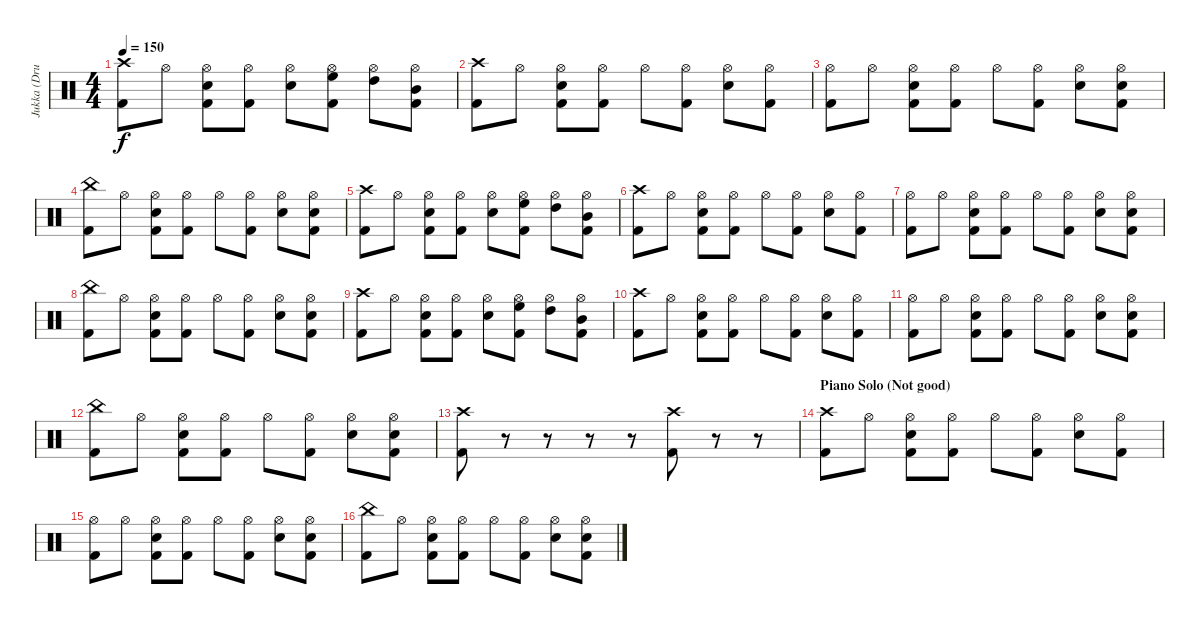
\track ("Jukka (Drums)" "Jukka (Dru") {instrument percussion}
\staff {score}
\articulation defaults
\ts (4 4)
\tempo 150
\clef neutral
\ks c
("Kick (hit) 2" "Crash high (hit)").8{dy f} "Hi-Hat (open)".8 ("Kick (hit) 2" "Hi-Hat (open)" "Electric Snare (hit)").8 ("Kick (hit) 2" "Hi-Hat (open)").8 ("Hi-Hat (open)" "Electric Snare (hit)").8 ("Kick (hit) 2" "Hi-Hat (open)" "High Floor Tom (hit)").8 ("Hi-Hat (open)" "High Tom (hit)").8 ("Kick (hit) 2" "Hi-Hat (open)" "Mid Tom (hit)").8 |
("Kick (hit) 2" "Crash high (hit)").8 "Hi-Hat (open)".8 ("Kick (hit) 2" "Hi-Hat (open)" "Electric Snare (hit)").8 ("Kick (hit) 2" "Hi-Hat (open)").8 "Hi-Hat (open)".8 ("Kick (hit) 2" "Hi-Hat (open)").8 ("Hi-Hat (open)" "Electric Snare (hit)").8 ("Kick (hit) 2" "Hi-Hat (open)").8 |
("Kick (hit) 2" "Hi-Hat (open)").8 "Hi-Hat (open)".8 ("Kick (hit) 2" "Hi-Hat (open)" "Electric Snare (hit)").8 ("Kick (hit) 2" "Hi-Hat (open)").8 "Hi-Hat (open)".8 ("Kick (hit) 2" "Hi-Hat (open)").8 ("Hi-Hat (open)" "Electric Snare (hit)").8 ("Kick (hit) 2" "Hi-Hat (open)" "Electric Snare (hit)").8 |
("Kick (hit) 2" "China (hit)").8 "Hi-Hat (open)".8 ("Kick (hit) 2" "Hi-Hat (open)" "Electric Snare (hit)").8 ("Kick (hit) 2" "Hi-Hat (open)").8 "Hi-Hat (open)".8 ("Kick (hit) 2" "Hi-Hat (open)").8 ("Hi-Hat (open)" "Electric Snare (hit)").8 ("Kick (hit) 2" "Hi-Hat (open)" "Electric Snare (hit)").8 |
("Kick (hit) 2" "Crash high (hit)").8 "Hi-Hat (open)".8 ("Kick (hit) 2" "Hi-Hat (open)" "Electric Snare (hit)").8 ("Kick (hit) 2" "Hi-Hat (open)").8 ("Hi-Hat (open)" "Electric Snare (hit)").8 ("Kick (hit) 2" "Hi-Hat (open)" "High Floor Tom (hit)").8 ("Hi-Hat (open)" "High Tom (hit)").8 ("Kick (hit) 2" "Hi-Hat (open)" "Mid Tom (hit)").8 |
("Kick (hit) 2" "Crash high (hit)").8 "Hi-Hat (open)".8 ("Kick (hit) 2" "Hi-Hat (open)" "Electric Snare (hit)").8 ("Kick (hit) 2" "Hi-Hat (open)").8 "Hi-Hat (open)".8 ("Kick (hit) 2" "Hi-Hat (open)").8 ("Hi-Hat (open)" "Electric Snare (hit)").8 ("Kick (hit) 2" "Hi-Hat (open)").8 |
("Kick (hit) 2" "Hi-Hat (open)").8 "Hi-Hat (open)".8 ("Kick (hit) 2" "Hi-Hat (open)" "Electric Snare (hit)").8 ("Kick (hit) 2" "Hi-Hat (open)").8 "Hi-Hat (open)".8 ("Kick (hit) 2" "Hi-Hat (open)").8 ("Hi-Hat (open)" "Electric Snare (hit)").8 ("Kick (hit) 2" "Hi-Hat (open)" "Electric Snare (hit)").8 |
("Kick (hit) 2" "China (hit)").8 "Hi-Hat (open)".8 ("Kick (hit) 2" "Hi-Hat (open)" "Electric Snare (hit)").8 ("Kick (hit) 2" "Hi-Hat (open)").8 "Hi-Hat (open)".8 ("Kick (hit) 2" "Hi-Hat (open)").8 ("Hi-Hat (open)" "Electric Snare (hit)").8 ("Kick (hit) 2" "Hi-Hat (open)" "Electric Snare (hit)").8 |
("Kick (hit) 2" "Crash high (hit)").8 "Hi-Hat (open)".8 ("Kick (hit) 2" "Hi-Hat (open)" "Electric Snare (hit)").8 ("Kick (hit) 2" "Hi-Hat (open)").8 ("Hi-Hat (open)" "Electric Snare (hit)").8 ("Kick (hit) 2" "Hi-Hat (open)" "High Floor Tom (hit)").8 ("Hi-Hat (open)" "High Tom (hit)").8 ("Kick (hit) 2" "Hi-Hat (open)" "Mid Tom (hit)").8 |
("Kick (hit) 2" "Crash high (hit)").8 "Hi-Hat (open)".8 ("Kick (hit) 2" "Hi-Hat (open)" "Electric Snare (hit)").8 ("Kick (hit) 2" "Hi-Hat (open)").8 "Hi-Hat (open)".8 ("Kick (hit) 2" "Hi-Hat (open)").8 ("Hi-Hat (open)" "Electric Snare (hit)").8 ("Kick (hit) 2" "Hi-Hat (open)").8 |
("Kick (hit) 2" "Hi-Hat (open)").8 "Hi-Hat (open)".8 ("Kick (hit) 2" "Hi-Hat (open)" "Electric Snare (hit)").8 ("Kick (hit) 2" "Hi-Hat (open)").8 "Hi-Hat (open)".8 ("Kick (hit) 2" "Hi-Hat (open)").8 ("Hi-Hat (open)" "Electric Snare (hit)").8 ("Kick (hit) 2" "Hi-Hat (open)" "Electric Snare (hit)").8 |
("Kick (hit) 2" "China (hit)").8 "Hi-Hat (open)".8 ("Kick (hit) 2" "Hi-Hat (open)" "Electric Snare (hit)").8 ("Kick (hit) 2" "Hi-Hat (open)").8 "Hi-Hat (open)".8 ("Kick (hit) 2" "Hi-Hat (open)").8 ("Hi-Hat (open)" "Electric Snare (hit)").8 ("Kick (hit) 2" "Hi-Hat (open)" "Electric Snare (hit)").8 |
("Kick (hit) 2" "Crash high (hit)").8 r.8 r.8 r.8 r.8 ("Kick (hit) 2" "Crash high (hit)").8 r.8 r.8 |
\section ("" "Piano Solo (Not good)")
("Kick (hit) 2" "Crash high (hit)").8 "Hi-Hat (open)".8 ("Kick (hit) 2" "Hi-Hat (open)" "Electric Snare (hit)").8 ("Kick (hit) 2" "Hi-Hat (open)").8 "Hi-Hat (open)".8 ("Kick (hit) 2" "Hi-Hat (open)").8 ("Hi-Hat (open)" "Electric Snare (hit)").8 ("Kick (hit) 2" "Hi-Hat (open)").8 |
("Kick (hit) 2" "Hi-Hat (open)").8 "Hi-Hat (open)".8 ("Kick (hit) 2" "Hi-Hat (open)" "Electric Snare (hit)").8 ("Kick (hit) 2" "Hi-Hat (open)").8 "Hi-Hat (open)".8 ("Kick (hit) 2" "Hi-Hat (open)").8 ("Hi-Hat (open)" "Electric Snare (hit)").8 ("Kick (hit) 2" "Hi-Hat (open)" "Electric Snare (hit)").8 |
("Kick (hit) 2" "China (hit)").8 "Hi-Hat (open)".8 ("Kick (hit) 2" "Hi-Hat (open)" "Electric Snare (hit)").8 ("Kick (hit) 2" "Hi-Hat (open)").8 "Hi-Hat (open)".8 ("Kick (hit) 2" "Hi-Hat (open)").8 ("Hi-Hat (open)" "Electric Snare (hit)").8 ("Kick (hit) 2" "Hi-Hat (open)" "Electric Snare (hit)").8
